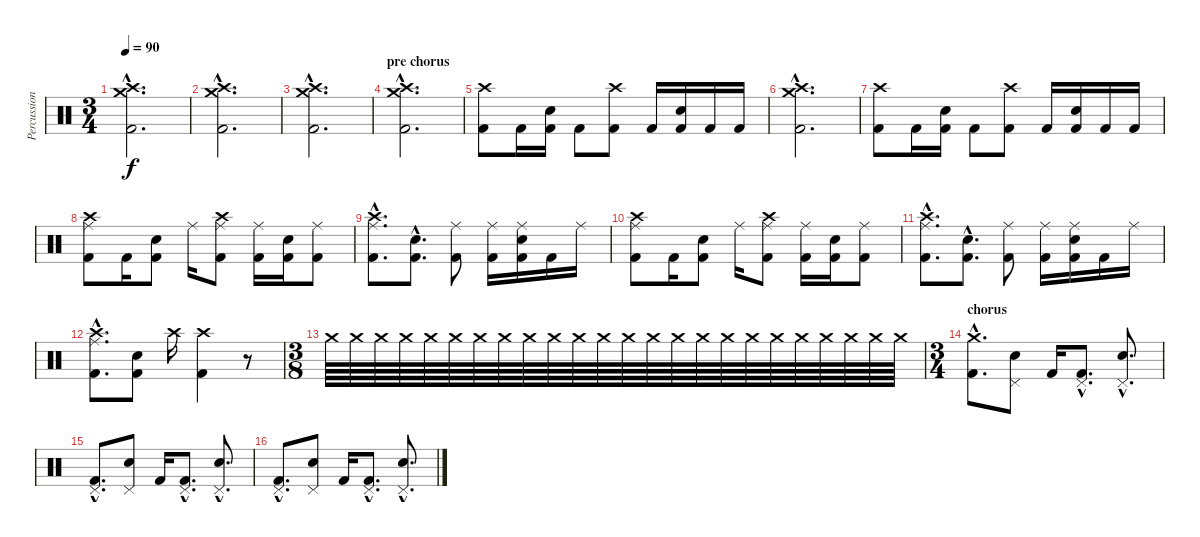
\track ("Percussion" "Percussion") {instrument percussion}
\staff {score}
\articulation defaults
\ts (3 4)
\tempo 90
\clef neutral
\ks c
("Kick (hit) 2"{hac} "Crash high (hit)"{hac} "Crash medium (hit)"{hac}).2{d dy f} |
("Kick (hit) 2"{hac} "Crash high (hit)"{hac} "Crash medium (hit)"{hac}).2{d} |
("Kick (hit) 2"{hac} "Crash high (hit)"{hac} "Crash medium (hit)"{hac}).2{d} |
\section ("" "pre chorus")
("Kick (hit) 2"{hac} "Crash high (hit)"{hac} "Crash medium (hit)"{hac}).2{d} |
("Kick (hit) 2" "Crash high (hit)").8 "Kick (hit) 2".16 ("Kick (hit) 2" "Electric Snare (hit)").16 "Kick (hit) 2".8 ("Kick (hit) 2" "Crash high (hit)").8 "Kick (hit) 2".16 ("Kick (hit) 2" "Electric Snare (hit)").16 "Kick (hit) 2".16 "Kick (hit) 2".16 |
("Kick (hit) 2"{hac} "Crash high (hit)"{hac} "Crash medium (hit)"{hac}).2{d} |
("Kick (hit) 2" "Crash high (hit)").8 "Kick (hit) 2".16 ("Kick (hit) 2" "Electric Snare (hit)").16 "Kick (hit) 2".8 ("Kick (hit) 2" "Crash high (hit)").8 "Kick (hit) 2".16 ("Kick (hit) 2" "Electric Snare (hit)").16 "Kick (hit) 2".16 "Kick (hit) 2".16 |
("Kick (hit) 2" "Crash high (hit)" "Ride (middle)").8 "Kick (hit) 2".16 ("Kick (hit) 2" "Electric Snare (hit)").8 "Ride (middle)".16 ("Kick (hit) 2" "Crash high (hit)" "Ride (middle)").8 ("Kick (hit) 2" "Ride (middle)").16 ("Kick (hit) 2" "Electric Snare (hit)").16 ("Kick (hit) 2" "Ride (middle)").8 |
("Kick (hit) 2"{hac} "Crash high (hit)"{hac} "Ride (middle)"{hac}).8{d} ("Kick (hit) 2"{hac} "Electric Snare (hit)"{hac}).8{d} ("Kick (hit) 2" "Ride (middle)").8 ("Kick (hit) 2" "Ride (middle)").16 ("Kick (hit) 2" "Electric Snare (hit)" "Ride (middle)").16 "Kick (hit) 2".16 "Ride (middle)".16 |
("Kick (hit) 2" "Crash high (hit)" "Ride (middle)").8 "Kick (hit) 2".16 ("Kick (hit) 2" "Electric Snare (hit)").8 "Ride (middle)".16 ("Kick (hit) 2" "Crash high (hit)" "Ride (middle)").8 ("Kick (hit) 2" "Ride (middle)").16 ("Kick (hit) 2" "Electric Snare (hit)").16 ("Kick (hit) 2" "Ride (middle)").8 |
("Kick (hit) 2"{hac} "Crash high (hit)"{hac} "Ride (middle)"{hac}).8{d} ("Kick (hit) 2"{hac} "Electric Snare (hit)"{hac}).8{d} ("Kick (hit) 2" "Ride (middle)").8 ("Kick (hit) 2" "Ride (middle)").16 ("Kick (hit) 2" "Electric Snare (hit)" "Ride (middle)").16 "Kick (hit) 2".16 "Ride (middle)".16 |
("Kick (hit) 2"{hac} "Crash high (hit)"{hac} "Ride (middle)"{hac}).8{d} ("Kick (hit) 2" "Electric Snare (hit)").8 "Crash high (hit)".16 ("Kick (hit) 2" "Crash high (hit)").4 r.8{volume 0} |
\ts (3 8)
"Crash medium (hit)".64{volume 13} "Crash medium (hit)".64 "Crash medium (hit)".64 "Crash medium (hit)".64 "Crash medium (hit)".64 "Crash medium (hit)".64 "Crash medium (hit)".64 "Crash medium (hit)".64 "Crash medium (hit)".64 "Crash medium (hit)".64 "Crash medium (hit)".64 "Crash medium (hit)".64 "Crash medium (hit)".64 "Crash medium (hit)".64 "Crash medium (hit)".64 "Crash medium (hit)".64 "Crash medium (hit)".64 "Crash medium (hit)".64 "Crash medium (hit)".64 "Crash medium (hit)".64 "Crash medium (hit)".64 "Crash medium (hit)".64 "Crash medium (hit)".64 "Crash medium (hit)".64 |
\ts (3 4)
\section ("" "chorus")
("Kick (hit) 2"{hac} "Crash medium (hit)"{hac}).8{d} ("Electric Snare (hit)" "Pedal Hi-Hat (hit)").8 "Kick (hit) 2".16 ("Kick (hit) 2"{hac} "Pedal Hi-Hat (hit)"{hac}).8{d} ("Electric Snare (hit)"{hac} "Pedal Hi-Hat (hit)"{hac}).8{d} |
("Kick (hit) 2"{hac} "Pedal Hi-Hat (hit)"{hac}).8{d} ("Electric Snare (hit)" "Pedal Hi-Hat (hit)").8 "Kick (hit) 2".16 ("Kick (hit) 2"{hac} "Pedal Hi-Hat (hit)"{hac}).8{d} ("Electric Snare (hit)"{hac} "Pedal Hi-Hat (hit)"{hac}).8{d} |
("Kick (hit) 2"{hac} "Pedal Hi-Hat (hit)"{hac}).8{d} ("Electric Snare (hit)" "Pedal Hi-Hat (hit)").8 "Kick (hit) 2".16 ("Kick (hit) 2"{hac} "Pedal Hi-Hat (hit)"{hac}).8{d} ("Electric Snare (hit)"{hac} "Pedal Hi-Hat (hit)"{hac}).8{d}
